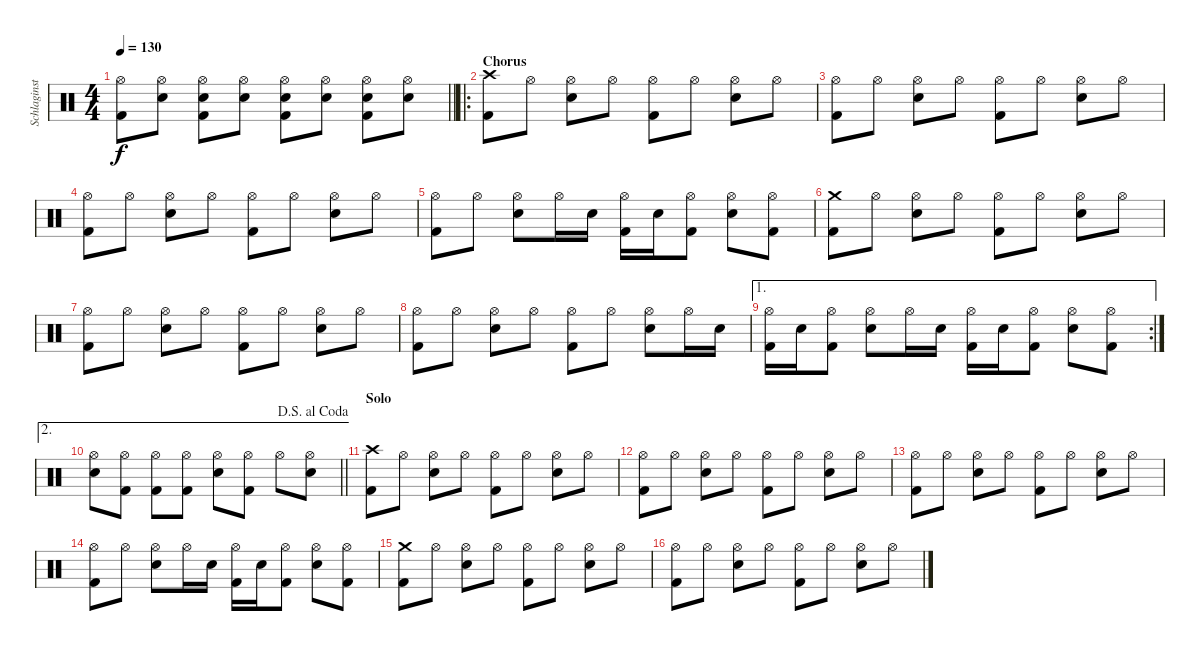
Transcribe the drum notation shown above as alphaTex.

\track ("Schlaginstrumente - Auswahl" "Schlaginst") {instrument percussion}
\staff {score}
\articulation defaults
\ts (4 4)
\tempo 130
\clef neutral
\barLineRight lightlight
\ks c
("Hi-Hat (open)" "Kick (hit) 2").8{dy f} ("Hi-Hat (open)" "Snare (hit) 2").8 ("Hi-Hat (open)" "Snare (hit) 2" "Kick (hit) 2").8 ("Hi-Hat (open)" "Snare (hit) 2").8 ("Hi-Hat (open)" "Snare (hit) 2" "Kick (hit) 2").8 ("Hi-Hat (open)" "Snare (hit) 2").8 ("Hi-Hat (open)" "Snare (hit) 2" "Kick (hit) 2").8 ("Hi-Hat (open)" "Snare (hit) 2").8 |
\ro
\section ("" "Chorus")
("Crash high (hit)" "Kick (hit) 2").8 "Hi-Hat (open)".8 ("Hi-Hat (open)" "Snare (hit) 2").8 "Hi-Hat (open)".8 ("Hi-Hat (open)" "Kick (hit) 2").8 "Hi-Hat (open)".8 ("Hi-Hat (open)" "Snare (hit) 2").8 "Hi-Hat (open)".8 |
("Hi-Hat (open)" "Kick (hit) 2").8 "Hi-Hat (open)".8 ("Hi-Hat (open)" "Snare (hit) 2").8 "Hi-Hat (open)".8 ("Hi-Hat (open)" "Kick (hit) 2").8 "Hi-Hat (open)".8 ("Hi-Hat (open)" "Snare (hit) 2").8 "Hi-Hat (open)".8 |
("Hi-Hat (open)" "Kick (hit) 2").8 "Hi-Hat (open)".8 ("Hi-Hat (open)" "Snare (hit) 2").8 "Hi-Hat (open)".8 ("Hi-Hat (open)" "Kick (hit) 2").8 "Hi-Hat (open)".8 ("Hi-Hat (open)" "Snare (hit) 2").8 "Hi-Hat (open)".8 |
("Hi-Hat (open)" "Kick (hit) 2").8 "Hi-Hat (open)".8 ("Hi-Hat (open)" "Snare (hit) 2").8 "Hi-Hat (open)".16 "Snare (hit) 2".16 ("Hi-Hat (open)" "Kick (hit) 2").16 "Snare (hit) 2".16 ("Hi-Hat (open)" "Kick (hit) 2").8 ("Hi-Hat (open)" "Snare (hit) 2").8 ("Hi-Hat (open)" "Kick (hit) 2").8 |
("Crash medium (hit)" "Kick (hit) 2").8 "Hi-Hat (open)".8 ("Hi-Hat (open)" "Snare (hit) 2").8 "Hi-Hat (open)".8 ("Hi-Hat (open)" "Kick (hit) 2").8 "Hi-Hat (open)".8 ("Hi-Hat (open)" "Snare (hit) 2").8 "Hi-Hat (open)".8 |
("Hi-Hat (open)" "Kick (hit) 2").8 "Hi-Hat (open)".8 ("Hi-Hat (open)" "Snare (hit) 2").8 "Hi-Hat (open)".8 ("Hi-Hat (open)" "Kick (hit) 2").8 "Hi-Hat (open)".8 ("Hi-Hat (open)" "Snare (hit) 2").8 "Hi-Hat (open)".8 |
("Hi-Hat (open)" "Kick (hit) 2").8 "Hi-Hat (open)".8 ("Hi-Hat (open)" "Snare (hit) 2").8 "Hi-Hat (open)".8 ("Hi-Hat (open)" "Kick (hit) 2").8 "Hi-Hat (open)".8 ("Hi-Hat (open)" "Snare (hit) 2").8 "Hi-Hat (open)".16 "Snare (hit) 2".16 |
\ae 1
\rc 2
("Hi-Hat (open)" "Kick (hit) 2").16 "Snare (hit) 2".16 ("Hi-Hat (open)" "Kick (hit) 2").8 ("Hi-Hat (open)" "Snare (hit) 2").8 "Hi-Hat (open)".16 "Snare (hit) 2".16 ("Hi-Hat (open)" "Kick (hit) 2").16 "Snare (hit) 2".16 ("Hi-Hat (open)" "Kick (hit) 2").8 ("Hi-Hat (open)" "Snare (hit) 2").8 ("Hi-Hat (open)" "Kick (hit) 2").8 |
\ae 2
\jump dalsegnoalcoda
\barLineRight lightlight
("Hi-Hat (open)" "Snare (hit) 2").8 ("Hi-Hat (open)" "Kick (hit) 2").8 ("Hi-Hat (open)" "Kick (hit) 2").8 ("Hi-Hat (open)" "Kick (hit) 2").8 ("Hi-Hat (open)" "Snare (hit) 2").8 ("Hi-Hat (open)" "Kick (hit) 2").8 "Hi-Hat (open)".8 ("Hi-Hat (open)" "Snare (hit) 2").8 |
\section ("" "Solo")
("Crash high (hit)" "Kick (hit) 2").8 "Hi-Hat (open)".8 ("Hi-Hat (open)" "Snare (hit) 2").8 "Hi-Hat (open)".8 ("Hi-Hat (open)" "Kick (hit) 2").8 "Hi-Hat (open)".8 ("Hi-Hat (open)" "Snare (hit) 2").8 "Hi-Hat (open)".8 |
("Hi-Hat (open)" "Kick (hit) 2").8 "Hi-Hat (open)".8 ("Hi-Hat (open)" "Snare (hit) 2").8 "Hi-Hat (open)".8 ("Hi-Hat (open)" "Kick (hit) 2").8 "Hi-Hat (open)".8 ("Hi-Hat (open)" "Snare (hit) 2").8 "Hi-Hat (open)".8 |
("Hi-Hat (open)" "Kick (hit) 2").8 "Hi-Hat (open)".8 ("Hi-Hat (open)" "Snare (hit) 2").8 "Hi-Hat (open)".8 ("Hi-Hat (open)" "Kick (hit) 2").8 "Hi-Hat (open)".8 ("Hi-Hat (open)" "Snare (hit) 2").8 "Hi-Hat (open)".8 |
("Hi-Hat (open)" "Kick (hit) 2").8 "Hi-Hat (open)".8 ("Hi-Hat (open)" "Snare (hit) 2").8 "Hi-Hat (open)".16 "Snare (hit) 2".16 ("Hi-Hat (open)" "Kick (hit) 2").16 "Snare (hit) 2".16 ("Hi-Hat (open)" "Kick (hit) 2").8 ("Hi-Hat (open)" "Snare (hit) 2").8 ("Hi-Hat (open)" "Kick (hit) 2").8 |
("Crash medium (hit)" "Kick (hit) 2").8 "Hi-Hat (open)".8 ("Hi-Hat (open)" "Snare (hit) 2").8 "Hi-Hat (open)".8 ("Hi-Hat (open)" "Kick (hit) 2").8 "Hi-Hat (open)".8 ("Hi-Hat (open)" "Snare (hit) 2").8 "Hi-Hat (open)".8 |
("Hi-Hat (open)" "Kick (hit) 2").8 "Hi-Hat (open)".8 ("Hi-Hat (open)" "Snare (hit) 2").8 "Hi-Hat (open)".8 ("Hi-Hat (open)" "Kick (hit) 2").8 "Hi-Hat (open)".8 ("Hi-Hat (open)" "Snare (hit) 2").8 "Hi-Hat (open)".8
